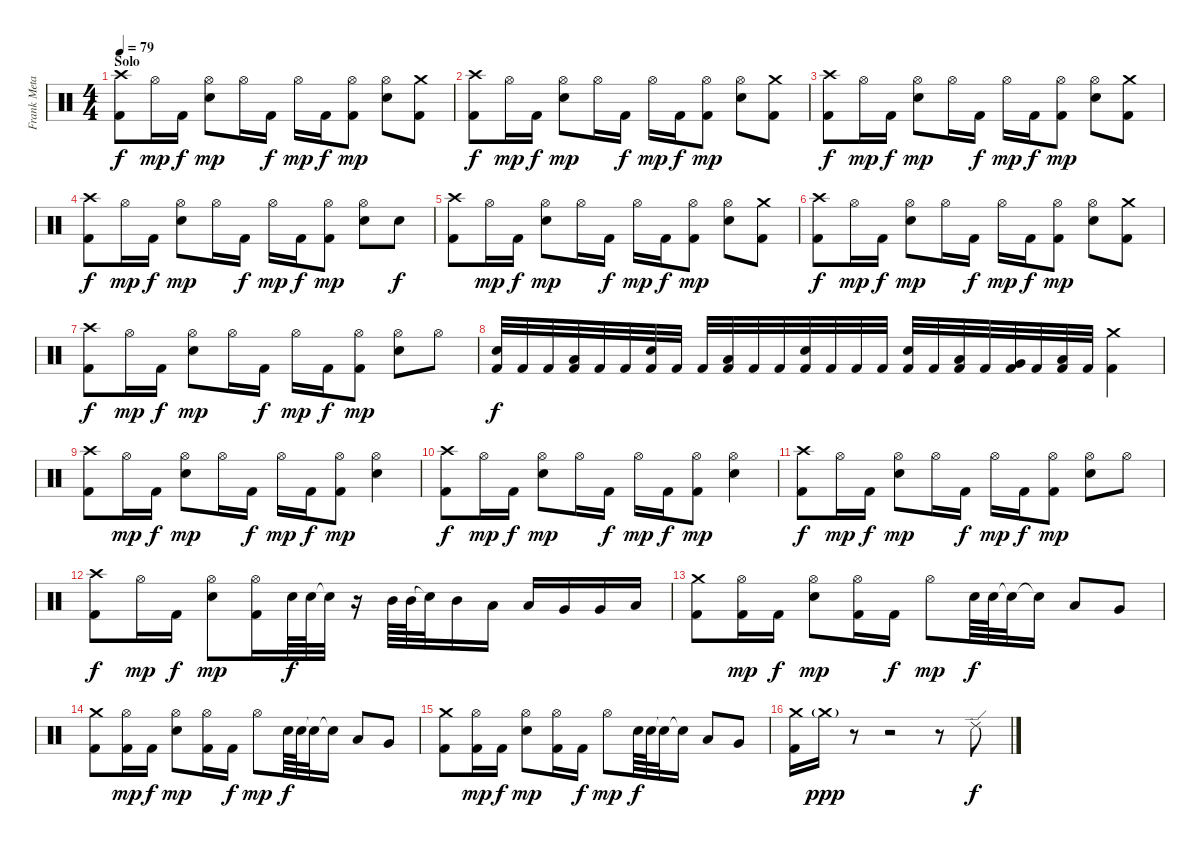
\track ("Frank Metayer" "Frank Meta") {instrument percussion}
\staff {score}
\articulation defaults
\ts (4 4)
\section ("" "Solo")
\tempo 79
\clef neutral
\ks c
("Kick (hit) 2" "Crash high (hit)").8{dy f} "Hi-Hat (open)".16{dy mp} "Kick (hit) 2".16{dy f} ("Hi-Hat (open)" "Snare (hit) 2").8{dy mp} "Hi-Hat (open)".16 "Kick (hit) 2".16{dy f} "Hi-Hat (open)".16{dy mp} "Kick (hit) 2".16{dy f} ("Kick (hit) 2" "Hi-Hat (open)").8{dy mp} ("Hi-Hat (open)" "Snare (hit) 2").8 ("Kick (hit) 2" "Crash medium (hit)").8 |
("Kick (hit) 2" "Crash high (hit)").8{dy f} "Hi-Hat (open)".16{dy mp} "Kick (hit) 2".16{dy f} ("Hi-Hat (open)" "Snare (hit) 2").8{dy mp} "Hi-Hat (open)".16 "Kick (hit) 2".16{dy f} "Hi-Hat (open)".16{dy mp} "Kick (hit) 2".16{dy f} ("Kick (hit) 2" "Hi-Hat (open)").8{dy mp} ("Hi-Hat (open)" "Snare (hit) 2").8 ("Kick (hit) 2" "Crash medium (hit)").8 |
("Kick (hit) 2" "Crash high (hit)").8{dy f} "Hi-Hat (open)".16{dy mp} "Kick (hit) 2".16{dy f} ("Hi-Hat (open)" "Snare (hit) 2").8{dy mp} "Hi-Hat (open)".16 "Kick (hit) 2".16{dy f} "Hi-Hat (open)".16{dy mp} "Kick (hit) 2".16{dy f} ("Kick (hit) 2" "Hi-Hat (open)").8{dy mp} ("Hi-Hat (open)" "Snare (hit) 2").8 ("Kick (hit) 2" "Crash medium (hit)").8 |
("Kick (hit) 2" "Crash high (hit)").8{dy f} "Hi-Hat (open)".16{dy mp} "Kick (hit) 2".16{dy f} ("Hi-Hat (open)" "Snare (hit) 2").8{dy mp} "Hi-Hat (open)".16 "Kick (hit) 2".16{dy f} "Hi-Hat (open)".16{dy mp} "Kick (hit) 2".16{dy f} ("Kick (hit) 2" "Hi-Hat (open)").8{dy mp} ("Hi-Hat (open)" "Snare (hit) 2").8 "Snare (hit) 2".8{dy f} |
("Kick (hit) 2" "Crash high (hit)").8 "Hi-Hat (open)".16{dy mp} "Kick (hit) 2".16{dy f} ("Hi-Hat (open)" "Snare (hit) 2").8{dy mp} "Hi-Hat (open)".16 "Kick (hit) 2".16{dy f} "Hi-Hat (open)".16{dy mp} "Kick (hit) 2".16{dy f} ("Kick (hit) 2" "Hi-Hat (open)").8{dy mp} ("Hi-Hat (open)" "Snare (hit) 2").8 ("Kick (hit) 2" "Crash medium (hit)").8 |
("Kick (hit) 2" "Crash high (hit)").8{dy f} "Hi-Hat (open)".16{dy mp} "Kick (hit) 2".16{dy f} ("Hi-Hat (open)" "Snare (hit) 2").8{dy mp} "Hi-Hat (open)".16 "Kick (hit) 2".16{dy f} "Hi-Hat (open)".16{dy mp} "Kick (hit) 2".16{dy f} ("Kick (hit) 2" "Hi-Hat (open)").8{dy mp} ("Hi-Hat (open)" "Snare (hit) 2").8 ("Kick (hit) 2" "Crash medium (hit)").8 |
("Kick (hit) 2" "Crash high (hit)").8{dy f} "Hi-Hat (open)".16{dy mp} "Kick (hit) 2".16{dy f} ("Hi-Hat (open)" "Snare (hit) 2").8{dy mp} "Hi-Hat (open)".16 "Kick (hit) 2".16{dy f} "Hi-Hat (open)".16{dy mp} "Kick (hit) 2".16{dy f} ("Kick (hit) 2" "Hi-Hat (open)").8{dy mp} ("Hi-Hat (open)" "Snare (hit) 2").8 "Hi-Hat (open)".8 |
("Kick (hit) 2" "Snare (hit) 2").32{dy f} "Kick (hit) 2".32 "Kick (hit) 2".32 ("Kick (hit) 2" "Low Tom (hit)").32 "Kick (hit) 2".32 "Kick (hit) 2".32 ("Kick (hit) 2" "Snare (hit) 2").32 "Kick (hit) 2".32 "Kick (hit) 2".32 ("Kick (hit) 2" "Low Tom (hit)").32 "Kick (hit) 2".32 "Kick (hit) 2".32 ("Kick (hit) 2" "Snare (hit) 2").32 "Kick (hit) 2".32 "Kick (hit) 2".32 "Kick (hit) 2".32 ("Kick (hit) 2" "Snare (hit) 2").32 "Kick (hit) 2".32 ("Kick (hit) 2" "Low Tom (hit)").32 "Kick (hit) 2".32 ("Kick (hit) 2" "Very Low Tom (hit)").32 "Kick (hit) 2".32 ("Kick (hit) 2" "Low Floor Tom (hit)").32 "Kick (hit) 2".32 ("Kick (hit) 2" "Crash medium (hit)").4 |
("Kick (hit) 2" "Crash high (hit)").8 "Hi-Hat (open)".16{dy mp} "Kick (hit) 2".16{dy f} ("Hi-Hat (open)" "Snare (hit) 2").8{dy mp} "Hi-Hat (open)".16 "Kick (hit) 2".16{dy f} "Hi-Hat (open)".16{dy mp} "Kick (hit) 2".16{dy f} ("Kick (hit) 2" "Hi-Hat (open)").8{dy mp} ("Hi-Hat (open)" "Snare (hit) 2").4 |
("Kick (hit) 2" "Crash high (hit)").8{dy f} "Hi-Hat (open)".16{dy mp} "Kick (hit) 2".16{dy f} ("Hi-Hat (open)" "Snare (hit) 2").8{dy mp} "Hi-Hat (open)".16 "Kick (hit) 2".16{dy f} "Hi-Hat (open)".16{dy mp} "Kick (hit) 2".16{dy f} ("Kick (hit) 2" "Hi-Hat (open)").8{dy mp} ("Hi-Hat (open)" "Snare (hit) 2").4 |
("Kick (hit) 2" "Crash high (hit)").8{dy f} "Hi-Hat (open)".16{dy mp} "Kick (hit) 2".16{dy f} ("Hi-Hat (open)" "Snare (hit) 2").8{dy mp} "Hi-Hat (open)".16 "Kick (hit) 2".16{dy f} "Hi-Hat (open)".16{dy mp} "Kick (hit) 2".16{dy f} ("Kick (hit) 2" "Hi-Hat (open)").8{dy mp} ("Hi-Hat (open)" "Snare (hit) 2").8 "Hi-Hat (open)".8 |
("Kick (hit) 2" "Crash high (hit)").8{dy f} "Hi-Hat (open)".16{dy mp} "Kick (hit) 2".16{dy f} ("Hi-Hat (open)" "Snare (hit) 2").8{dy mp} ("Kick (hit) 2" "Hi-Hat (open)").16 "Snare (hit) 2".64{dy f} "Snare (hit) 2".64 "Snare (hit)"{t}.32 r.16 "Mid Tom (hit)".64 "Mid Tom (hit)".64 "Snare (hit)"{t}.32 "Mid Tom (hit)".16 "Low Tom (hit)".16 "Low Tom (hit)".16 "Very Low Tom (hit)".16 "Very Low Tom (hit)".16 "Low Floor Tom (hit)".16 |
("Kick (hit) 2" "Crash medium (hit)").8 ("Kick (hit) 2" "Hi-Hat (open)").16{dy mp} "Kick (hit) 2".16{dy f} ("Hi-Hat (open)" "Snare (hit) 2").8{dy mp} ("Kick (hit) 2" "Hi-Hat (open)").16 "Kick (hit) 2".16{dy f} "Hi-Hat (open)".8{dy mp} "Snare (hit) 2".64{dy f} "Snare (hit) 2".64 "Snare (hit)"{t}.32 "Snare (hit)"{t}.16 "Low Tom (hit)".8 "Very Low Tom (hit)".8 |
("Kick (hit) 2" "Crash medium (hit)").8 ("Kick (hit) 2" "Hi-Hat (open)").16{dy mp} "Kick (hit) 2".16{dy f} ("Hi-Hat (open)" "Snare (hit) 2").8{dy mp} ("Kick (hit) 2" "Hi-Hat (open)").16 "Kick (hit) 2".16{dy f} "Hi-Hat (open)".8{dy mp} "Snare (hit) 2".64{dy f} "Snare (hit) 2".64 "Snare (hit)"{t}.32 "Snare (hit)"{t}.16 "Low Tom (hit)".8 "Very Low Tom (hit)".8 |
("Kick (hit) 2" "Crash medium (hit)").8 ("Kick (hit) 2" "Hi-Hat (open)").16{dy mp} "Kick (hit) 2".16{dy f} ("Hi-Hat (open)" "Snare (hit) 2").8{dy mp} ("Kick (hit) 2" "Hi-Hat (open)").16 "Kick (hit) 2".16{dy f} "Hi-Hat (open)".8{dy mp} "Snare (hit) 2".64{dy f} "Snare (hit) 2".64 "Snare (hit)"{t}.32 "Snare (hit)"{t}.16 "Low Tom (hit)".8 "Very Low Tom (hit)".8 |
("Kick (hit) 2" "Crash medium (hit)").16 "Crash medium (hit)"{g}.16{dy ppp} r.8 r.2 r.8 "Ride (edge) 2".8{dy f}
